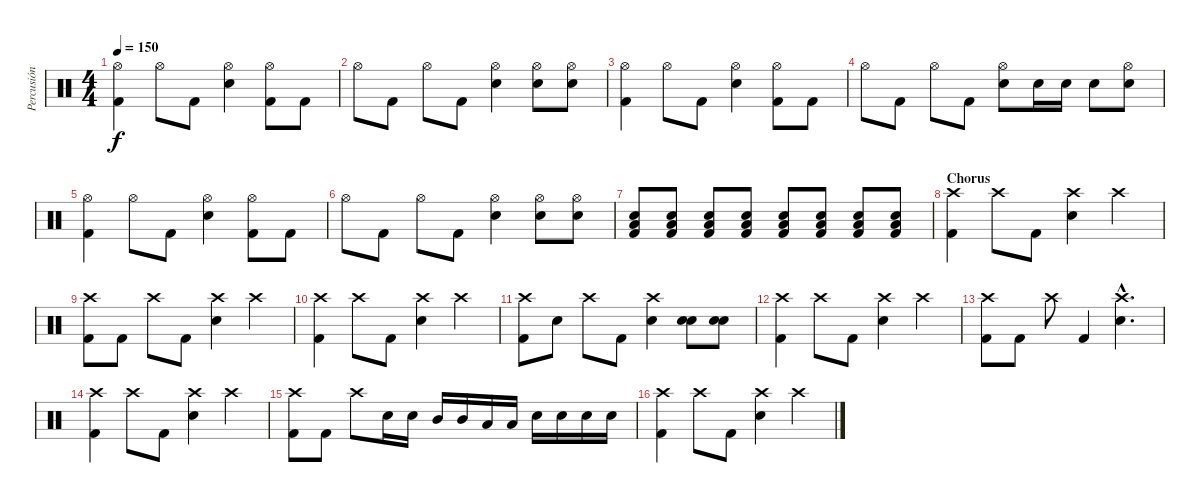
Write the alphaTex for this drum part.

\track ("Percusión" "Percusión") {instrument percussion}
\staff {score}
\articulation defaults
\ts (4 4)
\tempo 150
\clef neutral
\ks c
("Hi-Hat (open)" "Kick (hit) 2").4{dy f} "Hi-Hat (open)".8 "Kick (hit) 2".8 ("Hi-Hat (open)" "Electric Snare (hit)").4 ("Hi-Hat (open)" "Kick (hit) 2").8 "Kick (hit) 2".8 |
"Hi-Hat (open)".8 "Kick (hit) 2".8 "Hi-Hat (open)".8 "Kick (hit) 2".8 ("Hi-Hat (open)" "Electric Snare (hit)").4 ("Hi-Hat (open)" "Electric Snare (hit)").8 ("Hi-Hat (open)" "Electric Snare (hit)").8 |
("Hi-Hat (open)" "Kick (hit) 2").4 "Hi-Hat (open)".8 "Kick (hit) 2".8 ("Hi-Hat (open)" "Electric Snare (hit)").4 ("Hi-Hat (open)" "Kick (hit) 2").8 "Kick (hit) 2".8 |
"Hi-Hat (open)".8 "Kick (hit) 2".8 "Hi-Hat (open)".8 "Kick (hit) 2".8 ("Hi-Hat (open)" "Electric Snare (hit)").8 "Electric Snare (hit)".16 "Electric Snare (hit)".16 "Electric Snare (hit)".8 ("Hi-Hat (open)" "Electric Snare (hit)").8 |
("Hi-Hat (open)" "Kick (hit) 2").4 "Hi-Hat (open)".8 "Kick (hit) 2".8 ("Hi-Hat (open)" "Electric Snare (hit)").4 ("Hi-Hat (open)" "Kick (hit) 2").8 "Kick (hit) 2".8 |
"Hi-Hat (open)".8 "Kick (hit) 2".8 "Hi-Hat (open)".8 "Kick (hit) 2".8 ("Hi-Hat (open)" "Electric Snare (hit)").4 ("Hi-Hat (open)" "Electric Snare (hit)").8 ("Hi-Hat (open)" "Electric Snare (hit)").8 |
("Electric Snare (hit)" "Kick (hit) 2" "Low Floor Tom (hit)").8 ("Electric Snare (hit)" "Kick (hit) 2" "Low Floor Tom (hit)").8 ("Electric Snare (hit)" "Kick (hit) 2" "Low Floor Tom (hit)").8 ("Electric Snare (hit)" "Kick (hit) 2" "Low Floor Tom (hit)").8 ("Electric Snare (hit)" "Kick (hit) 2" "Low Floor Tom (hit)").8 ("Electric Snare (hit)" "Kick (hit) 2" "Low Floor Tom (hit)").8 ("Electric Snare (hit)" "Kick (hit) 2" "Low Floor Tom (hit)").8 ("Electric Snare (hit)" "Kick (hit) 2" "Low Floor Tom (hit)").8 |
\section ("" "Chorus")
("Crash high (hit)" "Kick (hit) 2").4 "Crash high (hit)".8 "Kick (hit) 2".8 ("Crash high (hit)" "Electric Snare (hit)").4 "Crash high (hit)".4 |
("Crash high (hit)" "Kick (hit) 2").8 "Kick (hit) 2".8 "Crash high (hit)".8 "Kick (hit) 2".8 ("Crash high (hit)" "Electric Snare (hit)").4 "Crash high (hit)".4 |
("Crash high (hit)" "Kick (hit) 2").4 "Crash high (hit)".8 "Kick (hit) 2".8 ("Crash high (hit)" "Electric Snare (hit)").4 "Crash high (hit)".4 |
("Crash high (hit)" "Kick (hit) 2").8 "Electric Snare (hit)".8 "Crash high (hit)".8 "Kick (hit) 2".8 ("Crash high (hit)" "Electric Snare (hit)").4 ("Electric Snare (hit)" "Electric Snare (hit)").8 ("Electric Snare (hit)" "Electric Snare (hit)").8 |
("Crash high (hit)" "Kick (hit) 2").4 "Crash high (hit)".8 "Kick (hit) 2".8 ("Crash high (hit)" "Electric Snare (hit)").4 "Crash high (hit)".4 |
("Crash high (hit)" "Kick (hit) 2").8 "Kick (hit) 2".8 "Crash high (hit)".8 "Kick (hit) 2".4 ("Crash high (hit)"{hac} "Electric Snare (hit)"{hac}).4{d} |
("Crash high (hit)" "Kick (hit) 2").4 "Crash high (hit)".8 "Kick (hit) 2".8 ("Crash high (hit)" "Electric Snare (hit)").4 "Crash high (hit)".4 |
("Crash high (hit)" "Kick (hit) 2").8 "Kick (hit) 2".8 "Crash high (hit)".8 "Electric Snare (hit)".16 "Electric Snare (hit)".16 "Mid Tom (hit)".16 "Mid Tom (hit)".16 "Low Tom (hit)".16 "Low Tom (hit)".16 "Electric Snare (hit)".16 "Electric Snare (hit)".16 "Electric Snare (hit)".16 "Electric Snare (hit)".16 |
("Crash high (hit)" "Kick (hit) 2").4 "Crash high (hit)".8 "Kick (hit) 2".8 ("Crash high (hit)" "Electric Snare (hit)").4 "Crash high (hit)".4
